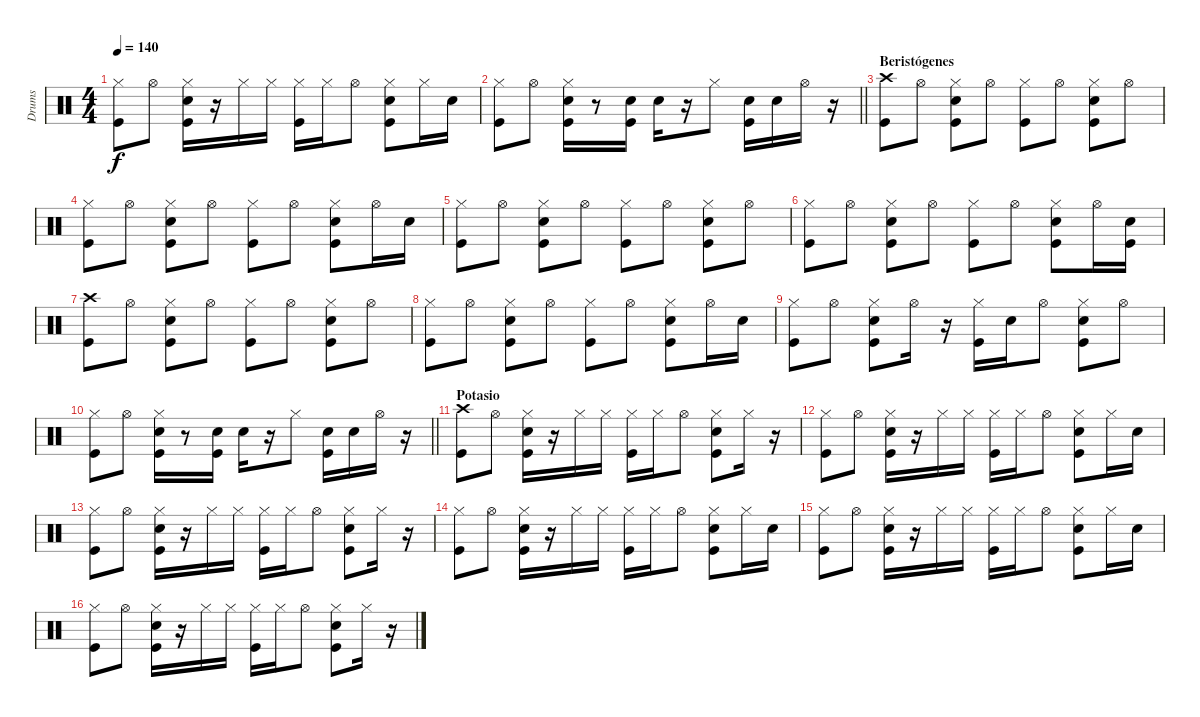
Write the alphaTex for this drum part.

\track ("Drums" "Drums") {instrument percussion}
\staff {score}
\articulation defaults
\ts (4 4)
\tempo 140
\clef neutral
\ks c
("Hi-Hat (closed)" "Kick (hit)").8{dy f} "Hi-Hat (open)".8 ("Hi-Hat (closed)" "Snare (hit) 2" "Kick (hit)").16 r.16 "Hi-Hat (closed)".16 "Hi-Hat (closed)".16 ("Hi-Hat (closed)" "Kick (hit)").16 "Hi-Hat (closed)".16 "Hi-Hat (open)".8 ("Hi-Hat (closed)" "Snare (hit) 2" "Kick (hit)").8 "Hi-Hat (closed)".16 "Snare (hit) 2".16 |
\barLineRight lightlight
("Hi-Hat (closed)" "Kick (hit)").8 "Hi-Hat (open)".8 ("Hi-Hat (closed)" "Snare (hit) 2" "Kick (hit)").16 r.8 ("Snare (hit) 2" "Kick (hit)").16 "Snare (hit) 2".16 r.16 "Hi-Hat (closed)".8 ("Snare (hit) 2" "Kick (hit)").16 "Snare (hit) 2".16 "Hi-Hat (open)".16 r.16 |
\section ("" "Beristógenes")
("Crash high (hit)" "Kick (hit)").8 "Hi-Hat (open)".8 ("Hi-Hat (closed)" "Snare (hit) 2" "Kick (hit)").8 "Hi-Hat (open)".8 ("Hi-Hat (closed)" "Kick (hit)").8 "Hi-Hat (open)".8 ("Hi-Hat (closed)" "Snare (hit) 2" "Kick (hit)").8 "Hi-Hat (open)".8 |
("Hi-Hat (closed)" "Kick (hit)").8 "Hi-Hat (open)".8 ("Hi-Hat (closed)" "Snare (hit) 2" "Kick (hit)").8 "Hi-Hat (open)".8 ("Hi-Hat (closed)" "Kick (hit)").8 "Hi-Hat (open)".8 ("Hi-Hat (closed)" "Snare (hit) 2" "Kick (hit)").8 "Hi-Hat (open)".16 "Snare (hit) 2".16 |
("Hi-Hat (closed)" "Kick (hit)").8 "Hi-Hat (open)".8 ("Hi-Hat (closed)" "Snare (hit) 2" "Kick (hit)").8 "Hi-Hat (open)".8 ("Hi-Hat (closed)" "Kick (hit)").8 "Hi-Hat (open)".8 ("Hi-Hat (closed)" "Snare (hit) 2" "Kick (hit)").8 "Hi-Hat (open)".8 |
("Hi-Hat (closed)" "Kick (hit)").8 "Hi-Hat (open)".8 ("Hi-Hat (closed)" "Snare (hit) 2" "Kick (hit)").8 "Hi-Hat (open)".8 ("Hi-Hat (closed)" "Kick (hit)").8 "Hi-Hat (open)".8 ("Hi-Hat (closed)" "Snare (hit) 2" "Kick (hit)").8 "Hi-Hat (open)".16 ("Snare (hit) 2" "Kick (hit)").16 |
("Crash high (hit)" "Kick (hit)").8 "Hi-Hat (open)".8 ("Hi-Hat (closed)" "Snare (hit) 2" "Kick (hit)").8 "Hi-Hat (open)".8 ("Hi-Hat (closed)" "Kick (hit)").8 "Hi-Hat (open)".8 ("Hi-Hat (closed)" "Snare (hit) 2" "Kick (hit)").8 "Hi-Hat (open)".8 |
("Hi-Hat (closed)" "Kick (hit)").8 "Hi-Hat (open)".8 ("Hi-Hat (closed)" "Snare (hit) 2" "Kick (hit)").8 "Hi-Hat (open)".8 ("Hi-Hat (closed)" "Kick (hit)").8 "Hi-Hat (open)".8 ("Hi-Hat (closed)" "Snare (hit) 2" "Kick (hit)").8 "Hi-Hat (open)".16 "Snare (hit) 2".16 |
("Hi-Hat (closed)" "Kick (hit)").8 "Hi-Hat (open)".8 ("Hi-Hat (closed)" "Snare (hit) 2" "Kick (hit)").8 "Hi-Hat (open)".16 r.16 ("Hi-Hat (closed)" "Kick (hit)").16 "Snare (hit) 2".16 "Hi-Hat (open)".8 ("Hi-Hat (closed)" "Snare (hit) 2" "Kick (hit)").8 "Hi-Hat (open)".8 |
\barLineRight lightlight
("Hi-Hat (closed)" "Kick (hit)").8 "Hi-Hat (open)".8 ("Hi-Hat (closed)" "Snare (hit) 2" "Kick (hit)").16 r.8 ("Snare (hit) 2" "Kick (hit)").16 "Snare (hit) 2".16 r.16 "Hi-Hat (closed)".8 ("Snare (hit) 2" "Kick (hit)").16 "Snare (hit) 2".16 "Hi-Hat (open)".16 r.16 |
\section ("" "Potasio")
("Crash high (hit)" "Kick (hit)").8 "Hi-Hat (open)".8 ("Hi-Hat (closed)" "Snare (hit) 2" "Kick (hit)").16 r.16 "Hi-Hat (closed)".16 "Hi-Hat (closed)".16 ("Hi-Hat (closed)" "Kick (hit)").16 "Hi-Hat (closed)".16 "Hi-Hat (open)".8 ("Hi-Hat (closed)" "Snare (hit) 2" "Kick (hit)").8 "Hi-Hat (closed)".16 r.16 |
("Hi-Hat (closed)" "Kick (hit)").8 "Hi-Hat (open)".8 ("Hi-Hat (closed)" "Snare (hit) 2" "Kick (hit)").16 r.16 "Hi-Hat (closed)".16 "Hi-Hat (closed)".16 ("Hi-Hat (closed)" "Kick (hit)").16 "Hi-Hat (closed)".16 "Hi-Hat (open)".8 ("Hi-Hat (closed)" "Snare (hit) 2" "Kick (hit)").8 "Hi-Hat (closed)".16 "Snare (hit) 2".16 |
("Hi-Hat (closed)" "Kick (hit)").8 "Hi-Hat (open)".8 ("Hi-Hat (closed)" "Snare (hit) 2" "Kick (hit)").16 r.16 "Hi-Hat (closed)".16 "Hi-Hat (closed)".16 ("Hi-Hat (closed)" "Kick (hit)").16 "Hi-Hat (closed)".16 "Hi-Hat (open)".8 ("Hi-Hat (closed)" "Snare (hit) 2" "Kick (hit)").8 "Hi-Hat (closed)".16 r.16 |
("Hi-Hat (closed)" "Kick (hit)").8 "Hi-Hat (open)".8 ("Hi-Hat (closed)" "Snare (hit) 2" "Kick (hit)").16 r.16 "Hi-Hat (closed)".16 "Hi-Hat (closed)".16 ("Hi-Hat (closed)" "Kick (hit)").16 "Hi-Hat (closed)".16 "Hi-Hat (open)".8 ("Hi-Hat (closed)" "Snare (hit) 2" "Kick (hit)").8 "Hi-Hat (closed)".16 "Snare (hit) 2".16 |
("Hi-Hat (closed)" "Kick (hit)").8 "Hi-Hat (open)".8 ("Hi-Hat (closed)" "Snare (hit) 2" "Kick (hit)").16 r.16 "Hi-Hat (closed)".16 "Hi-Hat (closed)".16 ("Hi-Hat (closed)" "Kick (hit)").16 "Hi-Hat (closed)".16 "Hi-Hat (open)".8 ("Hi-Hat (closed)" "Snare (hit) 2" "Kick (hit)").8 "Hi-Hat (closed)".16 "Snare (hit) 2".16 |
("Hi-Hat (closed)" "Kick (hit)").8 "Hi-Hat (open)".8 ("Hi-Hat (closed)" "Snare (hit) 2" "Kick (hit)").16 r.16 "Hi-Hat (closed)".16 "Hi-Hat (closed)".16 ("Hi-Hat (closed)" "Kick (hit)").16 "Hi-Hat (closed)".16 "Hi-Hat (open)".8 ("Hi-Hat (closed)" "Snare (hit) 2" "Kick (hit)").8 "Hi-Hat (closed)".16 r.16
